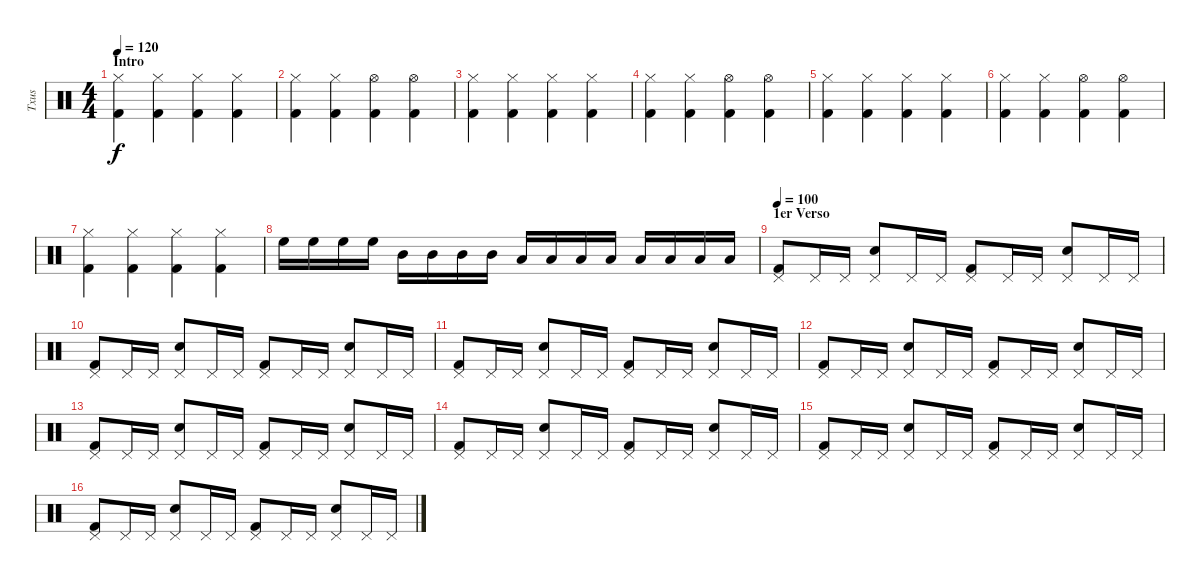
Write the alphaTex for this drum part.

\track ("Txus" "Txus") {instrument percussion}
\staff {score}
\articulation defaults
\ts (4 4)
\section ("" "Intro")
\tempo 120
\tempo 100
\tempo 120
\clef neutral
\ks c
("Hi-Hat (closed)" "Kick (hit) 2").4{dy f} ("Hi-Hat (closed)" "Kick (hit) 2").4 ("Hi-Hat (closed)" "Kick (hit) 2").4 ("Hi-Hat (closed)" "Kick (hit) 2").4 |
("Hi-Hat (closed)" "Kick (hit) 2").4 ("Hi-Hat (closed)" "Kick (hit) 2").4 ("Hi-Hat (open)" "Kick (hit) 2").4 ("Hi-Hat (open)" "Kick (hit) 2").4 |
("Hi-Hat (closed)" "Kick (hit) 2").4 ("Hi-Hat (closed)" "Kick (hit) 2").4 ("Hi-Hat (closed)" "Kick (hit) 2").4 ("Hi-Hat (closed)" "Kick (hit) 2").4 |
("Hi-Hat (closed)" "Kick (hit) 2").4 ("Hi-Hat (closed)" "Kick (hit) 2").4 ("Hi-Hat (open)" "Kick (hit) 2").4 ("Hi-Hat (open)" "Kick (hit) 2").4 |
("Hi-Hat (closed)" "Kick (hit) 2").4 ("Hi-Hat (closed)" "Kick (hit) 2").4 ("Hi-Hat (closed)" "Kick (hit) 2").4 ("Hi-Hat (closed)" "Kick (hit) 2").4 |
("Hi-Hat (closed)" "Kick (hit) 2").4 ("Hi-Hat (closed)" "Kick (hit) 2").4 ("Hi-Hat (open)" "Kick (hit) 2").4 ("Hi-Hat (open)" "Kick (hit) 2").4 |
("Hi-Hat (closed)" "Kick (hit) 2").4 ("Hi-Hat (closed)" "Kick (hit) 2").4 ("Hi-Hat (closed)" "Kick (hit) 2").4 ("Hi-Hat (closed)" "Kick (hit) 2").4 |
"High Floor Tom (hit)".16{volume 16 balance 16} "High Floor Tom (hit)".16 "High Floor Tom (hit)".16 "High Floor Tom (hit)".16 "Mid Tom (hit)".16 "Mid Tom (hit)".16 "Mid Tom (hit)".16 "Mid Tom (hit)".16 "Low Tom (hit)".16 "Low Tom (hit)".16 "Low Tom (hit)".16 "Low Tom (hit)".16 "Low Floor Tom (hit)".16 "Low Floor Tom (hit)".16 "Low Floor Tom (hit)".16 "Low Floor Tom (hit)".16 |
\section ("" "1er Verso")
\tempo 100
("Pedal Hi-Hat (hit)" "Kick (hit) 2").8{volume 8 balance 7} "Pedal Hi-Hat (hit)".16 "Pedal Hi-Hat (hit)".16 ("Pedal Hi-Hat (hit)" "Snare (hit) 2").8 "Pedal Hi-Hat (hit)".16 "Pedal Hi-Hat (hit)".16 ("Pedal Hi-Hat (hit)" "Kick (hit) 2").8 "Pedal Hi-Hat (hit)".16 "Pedal Hi-Hat (hit)".16 ("Pedal Hi-Hat (hit)" "Snare (hit) 2").8 "Pedal Hi-Hat (hit)".16 "Pedal Hi-Hat (hit)".16 |
("Pedal Hi-Hat (hit)" "Kick (hit) 2").8 "Pedal Hi-Hat (hit)".16 "Pedal Hi-Hat (hit)".16 ("Pedal Hi-Hat (hit)" "Snare (hit) 2").8 "Pedal Hi-Hat (hit)".16 "Pedal Hi-Hat (hit)".16 ("Pedal Hi-Hat (hit)" "Kick (hit) 2").8 "Pedal Hi-Hat (hit)".16 "Pedal Hi-Hat (hit)".16 ("Pedal Hi-Hat (hit)" "Snare (hit) 2").8 "Pedal Hi-Hat (hit)".16 "Pedal Hi-Hat (hit)".16 |
("Pedal Hi-Hat (hit)" "Kick (hit) 2").8 "Pedal Hi-Hat (hit)".16 "Pedal Hi-Hat (hit)".16 ("Pedal Hi-Hat (hit)" "Snare (hit) 2").8 "Pedal Hi-Hat (hit)".16 "Pedal Hi-Hat (hit)".16 ("Pedal Hi-Hat (hit)" "Kick (hit) 2").8 "Pedal Hi-Hat (hit)".16 "Pedal Hi-Hat (hit)".16 ("Pedal Hi-Hat (hit)" "Snare (hit) 2").8 "Pedal Hi-Hat (hit)".16 "Pedal Hi-Hat (hit)".16 |
("Pedal Hi-Hat (hit)" "Kick (hit) 2").8 "Pedal Hi-Hat (hit)".16 "Pedal Hi-Hat (hit)".16 ("Pedal Hi-Hat (hit)" "Snare (hit) 2").8 "Pedal Hi-Hat (hit)".16 "Pedal Hi-Hat (hit)".16 ("Pedal Hi-Hat (hit)" "Kick (hit) 2").8 "Pedal Hi-Hat (hit)".16 "Pedal Hi-Hat (hit)".16 ("Pedal Hi-Hat (hit)" "Snare (hit) 2").8 "Pedal Hi-Hat (hit)".16 "Pedal Hi-Hat (hit)".16 |
("Pedal Hi-Hat (hit)" "Kick (hit) 2").8 "Pedal Hi-Hat (hit)".16 "Pedal Hi-Hat (hit)".16 ("Pedal Hi-Hat (hit)" "Snare (hit) 2").8 "Pedal Hi-Hat (hit)".16 "Pedal Hi-Hat (hit)".16 ("Pedal Hi-Hat (hit)" "Kick (hit) 2").8 "Pedal Hi-Hat (hit)".16 "Pedal Hi-Hat (hit)".16 ("Pedal Hi-Hat (hit)" "Snare (hit) 2").8 "Pedal Hi-Hat (hit)".16 "Pedal Hi-Hat (hit)".16 |
("Pedal Hi-Hat (hit)" "Kick (hit) 2").8 "Pedal Hi-Hat (hit)".16 "Pedal Hi-Hat (hit)".16 ("Pedal Hi-Hat (hit)" "Snare (hit) 2").8 "Pedal Hi-Hat (hit)".16 "Pedal Hi-Hat (hit)".16 ("Pedal Hi-Hat (hit)" "Kick (hit) 2").8 "Pedal Hi-Hat (hit)".16 "Pedal Hi-Hat (hit)".16 ("Pedal Hi-Hat (hit)" "Snare (hit) 2").8 "Pedal Hi-Hat (hit)".16 "Pedal Hi-Hat (hit)".16 |
("Pedal Hi-Hat (hit)" "Kick (hit) 2").8 "Pedal Hi-Hat (hit)".16 "Pedal Hi-Hat (hit)".16 ("Pedal Hi-Hat (hit)" "Snare (hit) 2").8 "Pedal Hi-Hat (hit)".16 "Pedal Hi-Hat (hit)".16 ("Pedal Hi-Hat (hit)" "Kick (hit) 2").8 "Pedal Hi-Hat (hit)".16 "Pedal Hi-Hat (hit)".16 ("Pedal Hi-Hat (hit)" "Snare (hit) 2").8 "Pedal Hi-Hat (hit)".16 "Pedal Hi-Hat (hit)".16 |
("Pedal Hi-Hat (hit)" "Kick (hit) 2").8 "Pedal Hi-Hat (hit)".16 "Pedal Hi-Hat (hit)".16 ("Pedal Hi-Hat (hit)" "Snare (hit) 2").8 "Pedal Hi-Hat (hit)".16 "Pedal Hi-Hat (hit)".16 ("Pedal Hi-Hat (hit)" "Kick (hit) 2").8 "Pedal Hi-Hat (hit)".16 "Pedal Hi-Hat (hit)".16 ("Pedal Hi-Hat (hit)" "Snare (hit) 2").8 "Pedal Hi-Hat (hit)".16 "Pedal Hi-Hat (hit)".16
